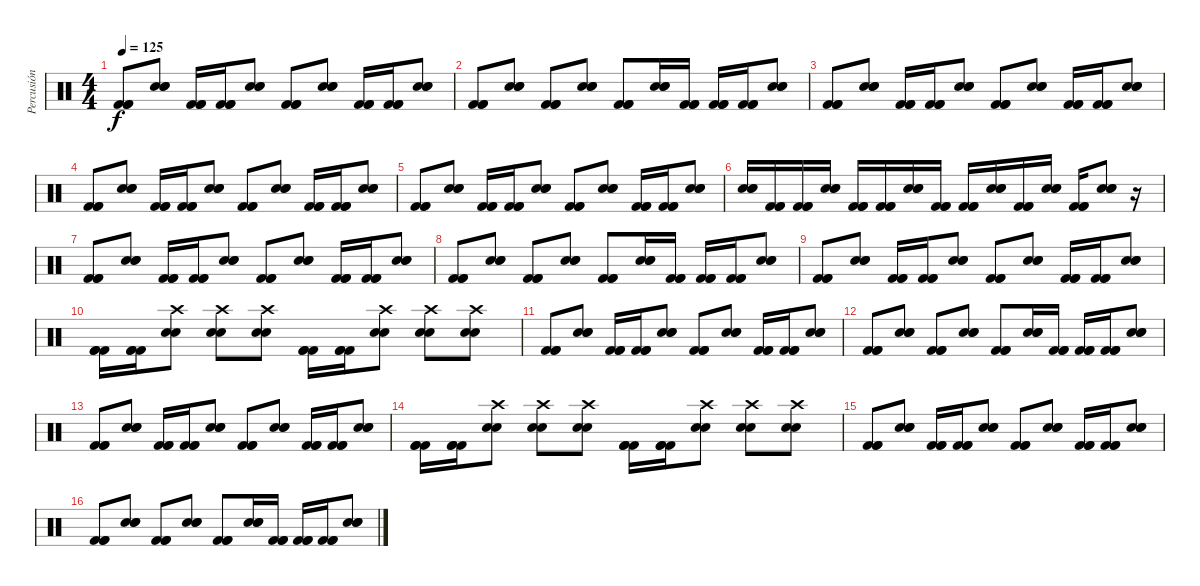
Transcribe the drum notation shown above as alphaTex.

\track ("Percusión" "Percusión") {instrument percussion}
\staff {score}
\articulation defaults
\ts (4 4)
\tempo 125
\clef neutral
\ks c
("Kick (hit) 2" "Kick (hit) 2" "Kick (hit) 2").8{dy f} ("Electric Snare (hit)" "Electric Snare (hit)" "Electric Snare (hit)").8 ("Kick (hit) 2" "Kick (hit) 2" "Kick (hit) 2").16 ("Kick (hit) 2" "Kick (hit) 2" "Kick (hit) 2").16 ("Electric Snare (hit)" "Electric Snare (hit)" "Electric Snare (hit)").8 ("Kick (hit) 2" "Kick (hit) 2" "Kick (hit) 2").8 ("Electric Snare (hit)" "Electric Snare (hit)" "Electric Snare (hit)").8 ("Kick (hit) 2" "Kick (hit) 2" "Kick (hit) 2").16 ("Kick (hit) 2" "Kick (hit) 2" "Kick (hit) 2").16 ("Electric Snare (hit)" "Electric Snare (hit)" "Electric Snare (hit)").8 |
("Kick (hit) 2" "Kick (hit) 2" "Kick (hit) 2").8 ("Electric Snare (hit)" "Electric Snare (hit)" "Electric Snare (hit)").8 ("Kick (hit) 2" "Kick (hit) 2" "Kick (hit) 2").8 ("Electric Snare (hit)" "Electric Snare (hit)" "Electric Snare (hit)").8 ("Kick (hit) 2" "Kick (hit) 2" "Kick (hit) 2").8 ("Electric Snare (hit)" "Electric Snare (hit)" "Electric Snare (hit)").16 ("Kick (hit) 2" "Kick (hit) 2" "Kick (hit) 2").16 ("Kick (hit) 2" "Kick (hit) 2" "Kick (hit) 2").16 ("Kick (hit) 2" "Kick (hit) 2" "Kick (hit) 2").16 ("Electric Snare (hit)" "Electric Snare (hit)" "Electric Snare (hit)").8 |
("Kick (hit) 2" "Kick (hit) 2" "Kick (hit) 2").8 ("Electric Snare (hit)" "Electric Snare (hit)" "Electric Snare (hit)").8 ("Kick (hit) 2" "Kick (hit) 2" "Kick (hit) 2").16 ("Kick (hit) 2" "Kick (hit) 2" "Kick (hit) 2").16 ("Electric Snare (hit)" "Electric Snare (hit)" "Electric Snare (hit)").8 ("Kick (hit) 2" "Kick (hit) 2" "Kick (hit) 2").8 ("Electric Snare (hit)" "Electric Snare (hit)" "Electric Snare (hit)").8 ("Kick (hit) 2" "Kick (hit) 2" "Kick (hit) 2").16 ("Kick (hit) 2" "Kick (hit) 2" "Kick (hit) 2").16 ("Electric Snare (hit)" "Electric Snare (hit)" "Electric Snare (hit)").8 |
("Kick (hit) 2" "Kick (hit) 2" "Kick (hit) 2").8 ("Electric Snare (hit)" "Electric Snare (hit)" "Electric Snare (hit)").8 ("Kick (hit) 2" "Kick (hit) 2" "Kick (hit) 2").16 ("Kick (hit) 2" "Kick (hit) 2" "Kick (hit) 2").16 ("Electric Snare (hit)" "Electric Snare (hit)" "Electric Snare (hit)").8 ("Kick (hit) 2" "Kick (hit) 2" "Kick (hit) 2").8 ("Electric Snare (hit)" "Electric Snare (hit)" "Electric Snare (hit)").8 ("Kick (hit) 2" "Kick (hit) 2" "Kick (hit) 2").16 ("Kick (hit) 2" "Kick (hit) 2" "Kick (hit) 2").16 ("Electric Snare (hit)" "Electric Snare (hit)" "Electric Snare (hit)").8 |
("Kick (hit) 2" "Kick (hit) 2" "Kick (hit) 2").8 ("Electric Snare (hit)" "Electric Snare (hit)" "Electric Snare (hit)").8 ("Kick (hit) 2" "Kick (hit) 2" "Kick (hit) 2").16 ("Kick (hit) 2" "Kick (hit) 2" "Kick (hit) 2").16 ("Electric Snare (hit)" "Electric Snare (hit)" "Electric Snare (hit)").8 ("Kick (hit) 2" "Kick (hit) 2" "Kick (hit) 2").8 ("Electric Snare (hit)" "Electric Snare (hit)" "Electric Snare (hit)").8 ("Kick (hit) 2" "Kick (hit) 2" "Kick (hit) 2").16 ("Kick (hit) 2" "Kick (hit) 2" "Kick (hit) 2").16 ("Electric Snare (hit)" "Electric Snare (hit)" "Electric Snare (hit)").8 |
("Electric Snare (hit)" "Electric Snare (hit)" "Electric Snare (hit)").16 ("Kick (hit) 2" "Kick (hit) 2" "Kick (hit) 2").16 ("Kick (hit) 2" "Kick (hit) 2" "Kick (hit) 2").16 ("Electric Snare (hit)" "Electric Snare (hit)" "Electric Snare (hit)").16 ("Kick (hit) 2" "Kick (hit) 2" "Kick (hit) 2").16 ("Kick (hit) 2" "Kick (hit) 2" "Kick (hit) 2").16 ("Electric Snare (hit)" "Electric Snare (hit)" "Electric Snare (hit)").16 ("Kick (hit) 2" "Kick (hit) 2" "Kick (hit) 2").16 ("Kick (hit) 2" "Kick (hit) 2" "Kick (hit) 2").16 ("Electric Snare (hit)" "Electric Snare (hit)" "Electric Snare (hit)").16 ("Kick (hit) 2" "Kick (hit) 2" "Kick (hit) 2").16 ("Electric Snare (hit)" "Electric Snare (hit)" "Electric Snare (hit)").16 ("Kick (hit) 2" "Kick (hit) 2" "Kick (hit) 2").16 ("Electric Snare (hit)" "Electric Snare (hit)" "Electric Snare (hit)").8 r.16 |
("Kick (hit) 2" "Kick (hit) 2" "Kick (hit) 2").8 ("Electric Snare (hit)" "Electric Snare (hit)" "Electric Snare (hit)").8 ("Kick (hit) 2" "Kick (hit) 2" "Kick (hit) 2").16 ("Kick (hit) 2" "Kick (hit) 2" "Kick (hit) 2").16 ("Electric Snare (hit)" "Electric Snare (hit)" "Electric Snare (hit)").8 ("Kick (hit) 2" "Kick (hit) 2" "Kick (hit) 2").8 ("Electric Snare (hit)" "Electric Snare (hit)" "Electric Snare (hit)").8 ("Kick (hit) 2" "Kick (hit) 2" "Kick (hit) 2").16 ("Kick (hit) 2" "Kick (hit) 2" "Kick (hit) 2").16 ("Electric Snare (hit)" "Electric Snare (hit)" "Electric Snare (hit)").8 |
("Kick (hit) 2" "Kick (hit) 2" "Kick (hit) 2").8 ("Electric Snare (hit)" "Electric Snare (hit)" "Electric Snare (hit)").8 ("Kick (hit) 2" "Kick (hit) 2" "Kick (hit) 2").8 ("Electric Snare (hit)" "Electric Snare (hit)" "Electric Snare (hit)").8 ("Kick (hit) 2" "Kick (hit) 2" "Kick (hit) 2").8 ("Electric Snare (hit)" "Electric Snare (hit)" "Electric Snare (hit)").16 ("Kick (hit) 2" "Kick (hit) 2" "Kick (hit) 2").16 ("Kick (hit) 2" "Kick (hit) 2" "Kick (hit) 2").16 ("Kick (hit) 2" "Kick (hit) 2" "Kick (hit) 2").16 ("Electric Snare (hit)" "Electric Snare (hit)" "Electric Snare (hit)").8 |
("Kick (hit) 2" "Kick (hit) 2" "Kick (hit) 2").8 ("Electric Snare (hit)" "Electric Snare (hit)" "Electric Snare (hit)").8 ("Kick (hit) 2" "Kick (hit) 2" "Kick (hit) 2").16 ("Kick (hit) 2" "Kick (hit) 2" "Kick (hit) 2").16 ("Electric Snare (hit)" "Electric Snare (hit)" "Electric Snare (hit)").8 ("Kick (hit) 2" "Kick (hit) 2" "Kick (hit) 2").8 ("Electric Snare (hit)" "Electric Snare (hit)" "Electric Snare (hit)").8 ("Kick (hit) 2" "Kick (hit) 2" "Kick (hit) 2").16 ("Kick (hit) 2" "Kick (hit) 2" "Kick (hit) 2").16 ("Electric Snare (hit)" "Electric Snare (hit)" "Electric Snare (hit)").8 |
("Kick (hit) 2" "Kick (hit) 2" "Kick (hit) 2").16 ("Kick (hit) 2" "Kick (hit) 2" "Kick (hit) 2").16 ("Crash high (hit)" "Electric Snare (hit)" "Electric Snare (hit)").8 ("Crash high (hit)" "Electric Snare (hit)" "Electric Snare (hit)").8 ("Crash high (hit)" "Electric Snare (hit)" "Electric Snare (hit)").8 ("Kick (hit) 2" "Kick (hit) 2" "Kick (hit) 2").16 ("Kick (hit) 2" "Kick (hit) 2" "Kick (hit) 2").16 ("Crash high (hit)" "Electric Snare (hit)" "Electric Snare (hit)").8 ("Crash high (hit)" "Electric Snare (hit)" "Electric Snare (hit)").8 ("Crash high (hit)" "Electric Snare (hit)" "Electric Snare (hit)").8 |
("Kick (hit) 2" "Kick (hit) 2" "Kick (hit) 2").8 ("Electric Snare (hit)" "Electric Snare (hit)" "Electric Snare (hit)").8 ("Kick (hit) 2" "Kick (hit) 2" "Kick (hit) 2").16 ("Kick (hit) 2" "Kick (hit) 2" "Kick (hit) 2").16 ("Electric Snare (hit)" "Electric Snare (hit)" "Electric Snare (hit)").8 ("Kick (hit) 2" "Kick (hit) 2" "Kick (hit) 2").8 ("Electric Snare (hit)" "Electric Snare (hit)" "Electric Snare (hit)").8 ("Kick (hit) 2" "Kick (hit) 2" "Kick (hit) 2").16 ("Kick (hit) 2" "Kick (hit) 2" "Kick (hit) 2").16 ("Electric Snare (hit)" "Electric Snare (hit)" "Electric Snare (hit)").8 |
("Kick (hit) 2" "Kick (hit) 2" "Kick (hit) 2").8 ("Electric Snare (hit)" "Electric Snare (hit)" "Electric Snare (hit)").8 ("Kick (hit) 2" "Kick (hit) 2" "Kick (hit) 2").8 ("Electric Snare (hit)" "Electric Snare (hit)" "Electric Snare (hit)").8 ("Kick (hit) 2" "Kick (hit) 2" "Kick (hit) 2").8 ("Electric Snare (hit)" "Electric Snare (hit)" "Electric Snare (hit)").16 ("Kick (hit) 2" "Kick (hit) 2" "Kick (hit) 2").16 ("Kick (hit) 2" "Kick (hit) 2" "Kick (hit) 2").16 ("Kick (hit) 2" "Kick (hit) 2" "Kick (hit) 2").16 ("Electric Snare (hit)" "Electric Snare (hit)" "Electric Snare (hit)").8 |
("Kick (hit) 2" "Kick (hit) 2" "Kick (hit) 2").8 ("Electric Snare (hit)" "Electric Snare (hit)" "Electric Snare (hit)").8 ("Kick (hit) 2" "Kick (hit) 2" "Kick (hit) 2").16 ("Kick (hit) 2" "Kick (hit) 2" "Kick (hit) 2").16 ("Electric Snare (hit)" "Electric Snare (hit)" "Electric Snare (hit)").8 ("Kick (hit) 2" "Kick (hit) 2" "Kick (hit) 2").8 ("Electric Snare (hit)" "Electric Snare (hit)" "Electric Snare (hit)").8 ("Kick (hit) 2" "Kick (hit) 2" "Kick (hit) 2").16 ("Kick (hit) 2" "Kick (hit) 2" "Kick (hit) 2").16 ("Electric Snare (hit)" "Electric Snare (hit)" "Electric Snare (hit)").8 |
("Kick (hit) 2" "Kick (hit) 2" "Kick (hit) 2").16 ("Kick (hit) 2" "Kick (hit) 2" "Kick (hit) 2").16 ("Crash high (hit)" "Electric Snare (hit)" "Electric Snare (hit)").8 ("Crash high (hit)" "Electric Snare (hit)" "Electric Snare (hit)").8 ("Crash high (hit)" "Electric Snare (hit)" "Electric Snare (hit)").8 ("Kick (hit) 2" "Kick (hit) 2" "Kick (hit) 2").16 ("Kick (hit) 2" "Kick (hit) 2" "Kick (hit) 2").16 ("Crash high (hit)" "Electric Snare (hit)" "Electric Snare (hit)").8 ("Crash high (hit)" "Electric Snare (hit)" "Electric Snare (hit)").8 ("Crash high (hit)" "Electric Snare (hit)" "Electric Snare (hit)").8 |
("Kick (hit) 2" "Kick (hit) 2" "Kick (hit) 2").8 ("Electric Snare (hit)" "Electric Snare (hit)" "Electric Snare (hit)").8 ("Kick (hit) 2" "Kick (hit) 2" "Kick (hit) 2").16 ("Kick (hit) 2" "Kick (hit) 2" "Kick (hit) 2").16 ("Electric Snare (hit)" "Electric Snare (hit)" "Electric Snare (hit)").8 ("Kick (hit) 2" "Kick (hit) 2" "Kick (hit) 2").8 ("Electric Snare (hit)" "Electric Snare (hit)" "Electric Snare (hit)").8 ("Kick (hit) 2" "Kick (hit) 2" "Kick (hit) 2").16 ("Kick (hit) 2" "Kick (hit) 2" "Kick (hit) 2").16 ("Electric Snare (hit)" "Electric Snare (hit)" "Electric Snare (hit)").8 |
("Kick (hit) 2" "Kick (hit) 2" "Kick (hit) 2").8 ("Electric Snare (hit)" "Electric Snare (hit)" "Electric Snare (hit)").8 ("Kick (hit) 2" "Kick (hit) 2" "Kick (hit) 2").8 ("Electric Snare (hit)" "Electric Snare (hit)" "Electric Snare (hit)").8 ("Kick (hit) 2" "Kick (hit) 2" "Kick (hit) 2").8 ("Electric Snare (hit)" "Electric Snare (hit)" "Electric Snare (hit)").16 ("Kick (hit) 2" "Kick (hit) 2" "Kick (hit) 2").16 ("Kick (hit) 2" "Kick (hit) 2" "Kick (hit) 2").16 ("Kick (hit) 2" "Kick (hit) 2" "Kick (hit) 2").16 ("Electric Snare (hit)" "Electric Snare (hit)" "Electric Snare (hit)").8
